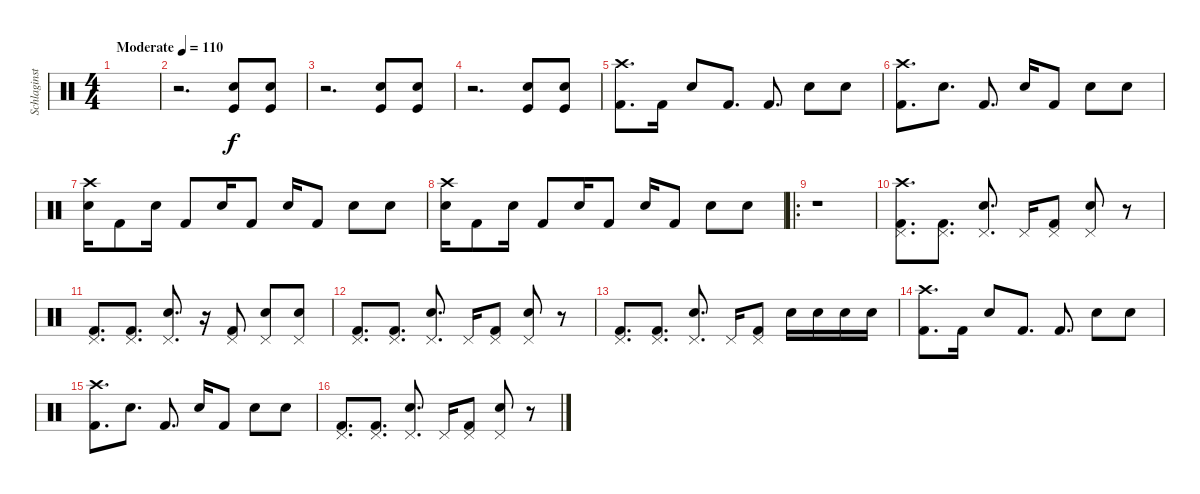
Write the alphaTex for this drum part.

\track ("Schlaginstrumente - Auswahl" "Schlaginst") {instrument percussion}
\staff {score}
\articulation defaults
\ts (4 4)
\tempo (110 "Moderate")
\clef neutral
\ks c
|
r.2{d} ("Kick (hit)" "Snare (hit) 2").8 ("Kick (hit)" "Snare (hit) 2").8 |
r.2{d} ("Kick (hit)" "Snare (hit) 2").8 ("Kick (hit)" "Snare (hit) 2").8 |
r.2{d} ("Kick (hit)" "Snare (hit) 2").8 ("Kick (hit)" "Snare (hit) 2").8 |
("Crash high (hit)" "Kick (hit) 2").8{d} "Kick (hit) 2".16 "Snare (hit) 2".8 "Kick (hit) 2".8{d} "Kick (hit) 2".8{d} "Snare (hit) 2".8 "Snare (hit) 2".8 |
("Crash high (hit)" "Kick (hit) 2").8{d} "Snare (hit) 2".8{d} "Kick (hit) 2".8{d} "Snare (hit) 2".16 "Kick (hit) 2".8 "Snare (hit) 2".8 "Snare (hit) 2".8 |
("Crash high (hit)" "Snare (hit) 2").16 "Kick (hit) 2".8 "Snare (hit) 2".16 "Kick (hit) 2".8 "Snare (hit) 2".16 "Kick (hit) 2".8 "Snare (hit) 2".16 "Kick (hit) 2".8 "Snare (hit) 2".8 "Snare (hit) 2".8 |
("Crash high (hit)" "Snare (hit) 2").16 "Kick (hit) 2".8 "Snare (hit) 2".16 "Kick (hit) 2".8 "Snare (hit) 2".16 "Kick (hit) 2".8 "Snare (hit) 2".16 "Kick (hit) 2".8 "Snare (hit) 2".8 "Snare (hit) 2".8 |
\ro
r.1 |
("Crash high (hit)" "Pedal Hi-Hat (hit)" "Kick (hit) 2").8{d} ("Pedal Hi-Hat (hit)" "Kick (hit) 2").8{d} ("Pedal Hi-Hat (hit)" "Snare (hit) 2").8{d} "Pedal Hi-Hat (hit)".16 ("Pedal Hi-Hat (hit)" "Kick (hit) 2").8 ("Pedal Hi-Hat (hit)" "Snare (hit) 2").8 r.8 |
("Pedal Hi-Hat (hit)" "Kick (hit) 2").8{d} ("Pedal Hi-Hat (hit)" "Kick (hit) 2").8{d} ("Pedal Hi-Hat (hit)" "Snare (hit) 2").8{d} r.16 ("Pedal Hi-Hat (hit)" "Kick (hit) 2").8 ("Pedal Hi-Hat (hit)" "Snare (hit) 2").8 ("Pedal Hi-Hat (hit)" "Snare (hit) 2").8 |
("Pedal Hi-Hat (hit)" "Kick (hit) 2").8{d} ("Pedal Hi-Hat (hit)" "Kick (hit) 2").8{d} ("Pedal Hi-Hat (hit)" "Snare (hit) 2").8{d} "Pedal Hi-Hat (hit)".16 ("Pedal Hi-Hat (hit)" "Kick (hit) 2").8 ("Pedal Hi-Hat (hit)" "Snare (hit) 2").8 r.8 |
("Pedal Hi-Hat (hit)" "Kick (hit) 2").8{d} ("Pedal Hi-Hat (hit)" "Kick (hit) 2").8{d} ("Pedal Hi-Hat (hit)" "Snare (hit) 2").8{d} "Pedal Hi-Hat (hit)".16 ("Pedal Hi-Hat (hit)" "Kick (hit) 2").8 "Snare (hit) 2".16 "Snare (hit) 2".16 "Snare (hit) 2".16 "Snare (hit) 2".16 |
("Crash high (hit)" "Kick (hit) 2").8{d} "Kick (hit) 2".16 "Snare (hit) 2".8 "Kick (hit) 2".8{d} "Kick (hit) 2".8{d} "Snare (hit) 2".8 "Snare (hit) 2".8 |
("Crash high (hit)" "Kick (hit) 2").8{d} "Snare (hit) 2".8{d} "Kick (hit) 2".8{d} "Snare (hit) 2".16 "Kick (hit) 2".8 "Snare (hit) 2".8 "Snare (hit) 2".8 |
("Pedal Hi-Hat (hit)" "Kick (hit) 2").8{d} ("Pedal Hi-Hat (hit)" "Kick (hit) 2").8{d} ("Pedal Hi-Hat (hit)" "Snare (hit) 2").8{d} "Pedal Hi-Hat (hit)".16 ("Pedal Hi-Hat (hit)" "Kick (hit) 2").8 ("Pedal Hi-Hat (hit)" "Snare (hit) 2").8 r.8
